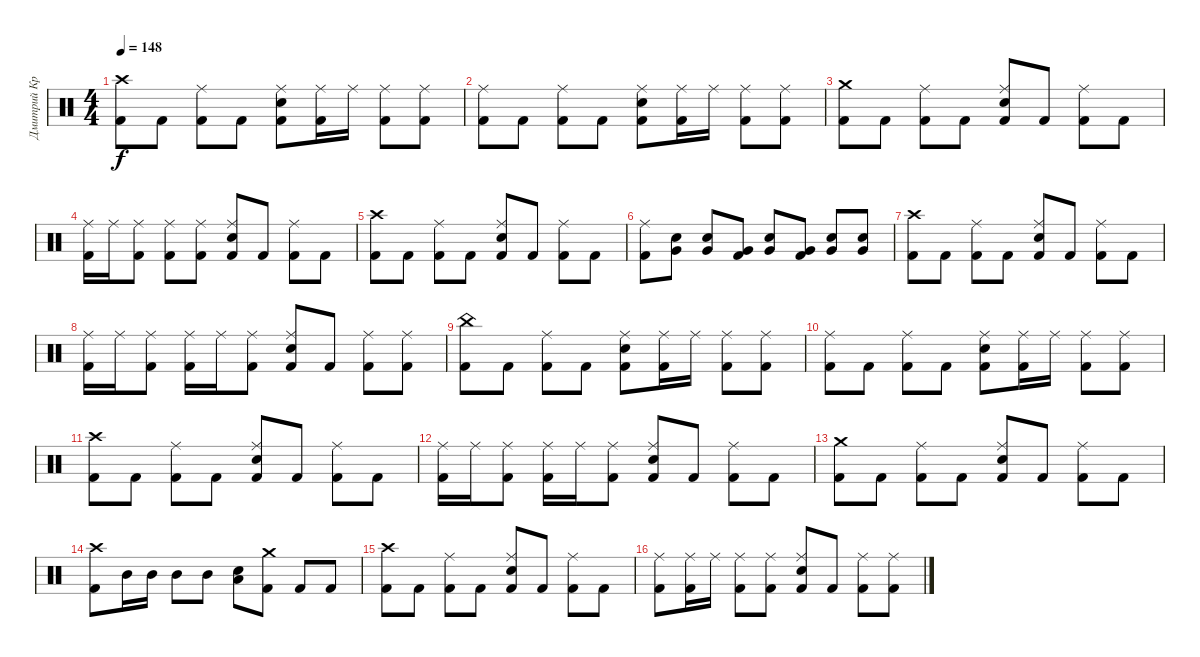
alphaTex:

\track ("Дмитрий Кривенков" "Дмитрий Кр") {instrument percussion}
\staff {score}
\articulation defaults
\ts (4 4)
\tempo 148
\clef neutral
\ks c
("Crash high (hit)" "Kick (hit) 2").8{dy f} "Kick (hit) 2".8 ("Ride (middle)" "Kick (hit) 2").8 "Kick (hit) 2".8 ("Ride (middle)" "Electric Snare (hit)" "Kick (hit) 2").8 ("Ride (middle)" "Kick (hit) 2").16 "Ride (middle)".16 ("Ride (middle)" "Kick (hit) 2").8 ("Ride (middle)" "Kick (hit) 2").8 |
("Ride (middle)" "Kick (hit) 2").8 "Kick (hit) 2".8 ("Ride (middle)" "Kick (hit) 2").8 "Kick (hit) 2".8 ("Ride (middle)" "Electric Snare (hit)" "Kick (hit) 2").8 ("Ride (middle)" "Kick (hit) 2").16 "Ride (middle)".16 ("Ride (middle)" "Kick (hit) 2").8 ("Ride (middle)" "Kick (hit) 2").8 |
("Crash medium (hit)" "Kick (hit) 2").8 "Kick (hit) 2".8 ("Ride (middle)" "Kick (hit) 2").8 "Kick (hit) 2".8 ("Ride (middle)" "Electric Snare (hit)" "Kick (hit) 2").8 "Kick (hit) 2".8 ("Ride (middle)" "Kick (hit) 2").8 "Kick (hit) 2".8 |
("Ride (middle)" "Kick (hit) 2").16 "Ride (middle)".16 ("Ride (middle)" "Kick (hit) 2").8 ("Ride (middle)" "Kick (hit) 2").8 ("Ride (middle)" "Kick (hit) 2").8 ("Ride (middle)" "Electric Snare (hit)" "Kick (hit) 2").8 "Kick (hit) 2".8 ("Ride (middle)" "Kick (hit) 2").8 "Kick (hit) 2".8 |
("Crash high (hit)" "Kick (hit) 2").8 "Kick (hit) 2".8 ("Ride (middle)" "Kick (hit) 2").8 "Kick (hit) 2".8 ("Ride (middle)" "Electric Snare (hit)" "Kick (hit) 2").8 "Kick (hit) 2".8 ("Ride (middle)" "Kick (hit) 2").8 "Kick (hit) 2".8 |
("Ride (middle)" "Kick (hit) 2").8 ("Very Low Tom (hit)" "Electric Snare (hit)").8 ("Very Low Tom (hit)" "Electric Snare (hit)").8 ("Very Low Tom (hit)" "Kick (hit) 2").8 ("Very Low Tom (hit)" "Electric Snare (hit)").8 ("Very Low Tom (hit)" "Kick (hit) 2").8 ("Very Low Tom (hit)" "Electric Snare (hit)").8 ("Very Low Tom (hit)" "Electric Snare (hit)").8 |
("Crash high (hit)" "Kick (hit) 2").8 "Kick (hit) 2".8 ("Ride (middle)" "Kick (hit) 2").8 "Kick (hit) 2".8 ("Ride (middle)" "Electric Snare (hit)" "Kick (hit) 2").8 "Kick (hit) 2".8 ("Ride (middle)" "Kick (hit) 2").8 "Kick (hit) 2".8 |
("Ride (middle)" "Kick (hit) 2").16 "Ride (middle)".16 ("Ride (middle)" "Kick (hit) 2").8 ("Ride (middle)" "Kick (hit) 2").16 "Ride (middle)".16 ("Ride (middle)" "Kick (hit) 2").8 ("Ride (middle)" "Electric Snare (hit)" "Kick (hit) 2").8 "Kick (hit) 2".8 ("Ride (middle)" "Kick (hit) 2").8 ("Ride (middle)" "Kick (hit) 2").8 |
("China (hit)" "Kick (hit) 2").8 "Kick (hit) 2".8 ("Ride (middle)" "Kick (hit) 2").8 "Kick (hit) 2".8 ("Ride (middle)" "Electric Snare (hit)" "Kick (hit) 2").8 ("Ride (middle)" "Kick (hit) 2").16 "Ride (middle)".16 ("Ride (middle)" "Kick (hit) 2").8 ("Ride (middle)" "Kick (hit) 2").8 |
("Ride (middle)" "Kick (hit) 2").8 "Kick (hit) 2".8 ("Ride (middle)" "Kick (hit) 2").8 "Kick (hit) 2".8 ("Ride (middle)" "Electric Snare (hit)" "Kick (hit) 2").8 ("Ride (middle)" "Kick (hit) 2").16 "Ride (middle)".16 ("Ride (middle)" "Kick (hit) 2").8 ("Ride (middle)" "Kick (hit) 2").8 |
("Crash high (hit)" "Kick (hit) 2").8 "Kick (hit) 2".8 ("Ride (middle)" "Kick (hit) 2").8 "Kick (hit) 2".8 ("Ride (middle)" "Electric Snare (hit)" "Kick (hit) 2").8 "Kick (hit) 2".8 ("Ride (middle)" "Kick (hit) 2").8 "Kick (hit) 2".8 |
("Ride (middle)" "Kick (hit) 2").16 "Ride (middle)".16 ("Ride (middle)" "Kick (hit) 2").8 ("Ride (middle)" "Kick (hit) 2").16 "Ride (middle)".16 ("Ride (middle)" "Kick (hit) 2").8 ("Ride (middle)" "Electric Snare (hit)" "Kick (hit) 2").8 "Kick (hit) 2".8 ("Ride (middle)" "Kick (hit) 2").8 "Kick (hit) 2".8 |
("Crash medium (hit)" "Kick (hit) 2").8 "Kick (hit) 2".8 ("Ride (middle)" "Kick (hit) 2").8 "Kick (hit) 2".8 ("Ride (middle)" "Electric Snare (hit)" "Kick (hit) 2").8 "Kick (hit) 2".8 ("Ride (middle)" "Kick (hit) 2").8 "Kick (hit) 2".8 |
("Crash high (hit)" "Kick (hit) 2").8 "Mid Tom (hit)".16 "Mid Tom (hit)".16 "Mid Tom (hit)".8 "Mid Tom (hit)".8 ("Low Tom (hit)" "Electric Snare (hit)").8 ("Crash medium (hit)" "Kick (hit) 2").8 "Kick (hit) 2".8 "Kick (hit) 2".8 |
("Crash high (hit)" "Kick (hit) 2").8 "Kick (hit) 2".8 ("Ride (middle)" "Kick (hit) 2").8 "Kick (hit) 2".8 ("Ride (middle)" "Electric Snare (hit)" "Kick (hit) 2").8 "Kick (hit) 2".8 ("Ride (middle)" "Kick (hit) 2").8 "Kick (hit) 2".8 |
("Ride (middle)" "Kick (hit) 2").8 ("Ride (middle)" "Kick (hit) 2").16 "Ride (middle)".16 ("Ride (middle)" "Kick (hit) 2").8 ("Ride (middle)" "Kick (hit) 2").8 ("Ride (middle)" "Electric Snare (hit)" "Kick (hit) 2").8 "Kick (hit) 2".8 ("Ride (middle)" "Kick (hit) 2").8 ("Ride (middle)" "Kick (hit) 2").8
